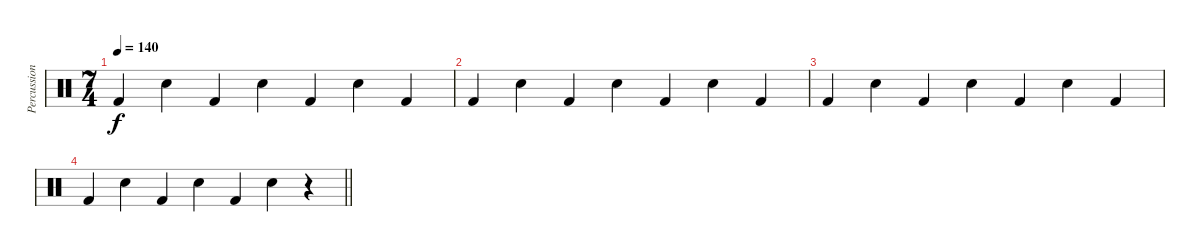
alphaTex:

\track ("Percussion" "Percussion") {instrument percussion}
\staff {score}
\articulation defaults
\ts (7 4)
\tempo 140
\clef neutral
\ks c "Kick (hit) 2".4{dy f} "Snare (hit) 2".4 "Kick (hit) 2".4 "Snare (hit) 2".4 "Kick (hit) 2".4 "Snare (hit) 2".4 "Kick (hit) 2".4
|
"Kick (hit) 2".4 "Snare (hit) 2".4 "Kick (hit) 2".4 "Snare (hit) 2".4 "Kick (hit) 2".4 "Snare (hit) 2".4 "Kick (hit) 2".4 |
"Kick (hit) 2".4 "Snare (hit) 2".4 "Kick (hit) 2".4 "Snare (hit) 2".4 "Kick (hit) 2".4 "Snare (hit) 2".4 "Kick (hit) 2".4 |
\barLineRight lightlight "Kick (hit) 2".4 "Snare (hit) 2".4 "Kick (hit) 2".4 "Snare (hit) 2".4 "Kick (hit) 2".4 "Snare (hit) 2".4
r.4
